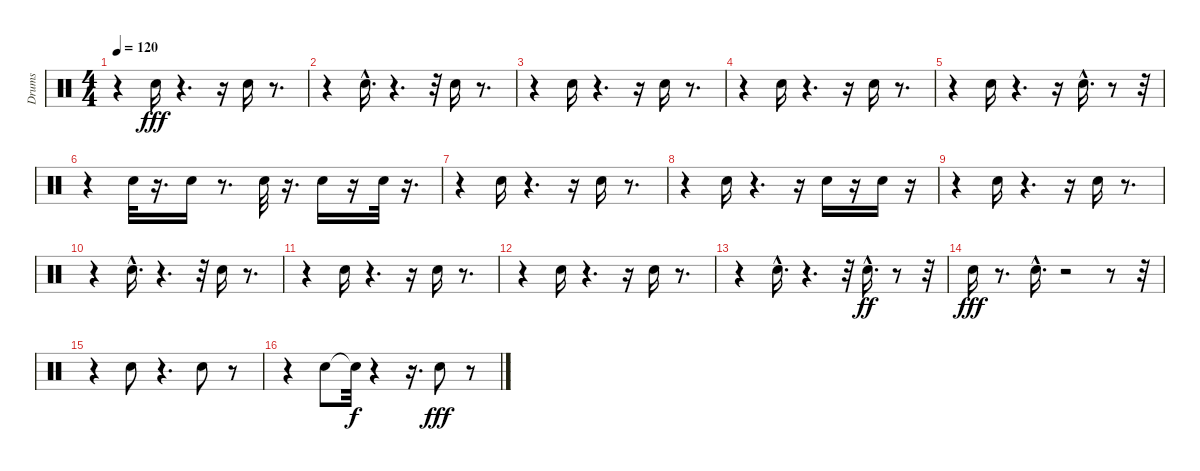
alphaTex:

\track ("Drums" "Drums") {instrument percussion}
\staff {score}
\articulation defaults
\ts (4 4)
\tempo 120
\clef neutral
\ks c
r.4{dy ff} "Electric Snare (hit)".16{dy fff} r.4{d} r.16 "Electric Snare (hit)".16 r.8{d} |
r.4 "Electric Snare (hit)"{hac}.16{d} r.4{d} r.32 "Electric Snare (hit)".16 r.8{d} |
r.4 "Electric Snare (hit)".16 r.4{d} r.16 "Electric Snare (hit)".16 r.8{d} |
r.4 "Electric Snare (hit)".16 r.4{d} r.16 "Electric Snare (hit)".16 r.8{d} |
r.4 "Electric Snare (hit)".16 r.4{d} r.16 "Electric Snare (hit)"{hac}.16{d} r.8 r.32 |
r.4 "Electric Snare (hit)".32 r.16{d} "Electric Snare (hit)".16 r.8{d} "Electric Snare (hit)".32 r.16{d} "Electric Snare (hit)".16 r.16 "Electric Snare (hit)".32 r.16{d} |
r.4 "Electric Snare (hit)".16 r.4{d} r.16 "Electric Snare (hit)".16 r.8{d} |
r.4 "Electric Snare (hit)".16 r.4{d} r.16 "Electric Snare (hit)".16 r.16 "Electric Snare (hit)".16 r.16 |
r.4 "Electric Snare (hit)".16 r.4{d} r.16 "Electric Snare (hit)".16 r.8{d} |
r.4 "Electric Snare (hit)"{hac}.16{d} r.4{d} r.32 "Electric Snare (hit)".16 r.8{d} |
r.4 "Electric Snare (hit)".16 r.4{d} r.16 "Electric Snare (hit)".16 r.8{d} |
r.4 "Electric Snare (hit)".16 r.4{d} r.16 "Electric Snare (hit)".16 r.8{d} |
r.4 "Electric Snare (hit)"{hac}.16{d} r.4{d} r.32 "Electric Snare (hit)"{hac}.16{d dy ff} r.8 r.32 |
"Electric Snare (hit)".16{dy fff} r.8{d} "Electric Snare (hit)"{hac}.16{d} r.2 r.8 r.32 |
r.4 "Electric Snare (hit)".8 r.4{d} "Electric Snare (hit)".8 r.8 |
r.4 "Electric Snare (hit)".8 "Snare (hit)"{t}.32{dy f} r.4 r.16{d} "Electric Snare (hit)".8{dy fff} r.8
